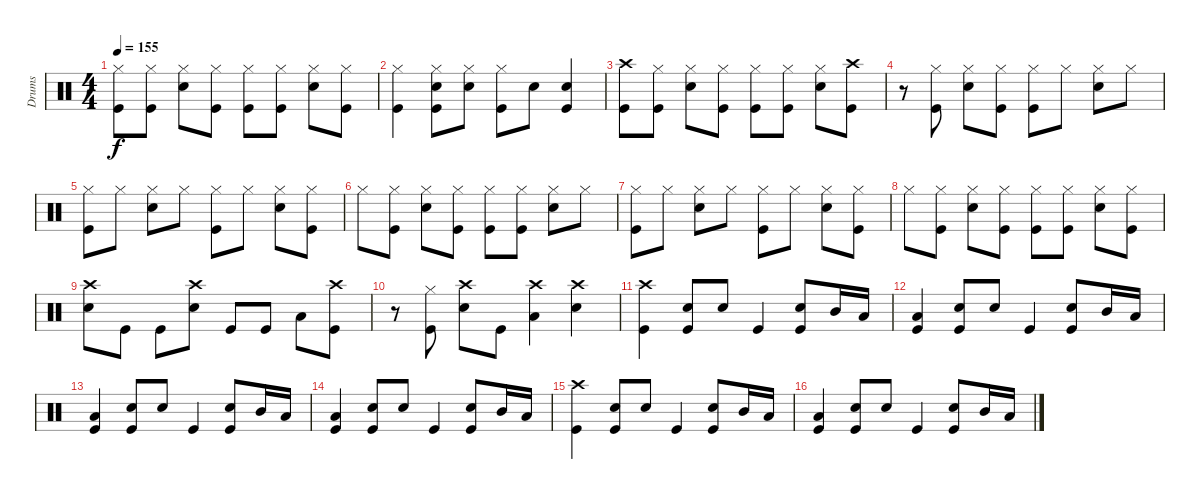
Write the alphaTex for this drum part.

\track ("Drums" "Drums") {instrument percussion}
\staff {score}
\articulation defaults
\ts (4 4)
\tempo 155
\clef neutral
\ks c
("Hi-Hat (closed)" "Kick (hit)").8{dy f} ("Hi-Hat (closed)" "Kick (hit)").8 ("Hi-Hat (closed)" "Snare (hit) 2").8 ("Hi-Hat (closed)" "Kick (hit)").8 ("Hi-Hat (closed)" "Kick (hit)").8 ("Hi-Hat (closed)" "Kick (hit)").8 ("Hi-Hat (closed)" "Snare (hit) 2").8 ("Hi-Hat (closed)" "Kick (hit)").8 |
("Hi-Hat (closed)" "Kick (hit)").4 ("Hi-Hat (closed)" "Snare (hit) 2" "Kick (hit)").8 ("Hi-Hat (closed)" "Snare (hit) 2").8 ("Hi-Hat (closed)" "Kick (hit)").8 "Snare (hit) 2".8 ("Snare (hit) 2" "Kick (hit)").4 |
("Crash high (hit)" "Kick (hit)").8 ("Hi-Hat (closed)" "Kick (hit)").8 ("Hi-Hat (closed)" "Snare (hit) 2").8 ("Hi-Hat (closed)" "Kick (hit)").8 ("Hi-Hat (closed)" "Kick (hit)").8 ("Hi-Hat (closed)" "Kick (hit)").8 ("Hi-Hat (closed)" "Snare (hit) 2").8 ("Crash high (hit)" "Kick (hit)").8 |
r.8 ("Hi-Hat (closed)" "Kick (hit)").8 ("Hi-Hat (closed)" "Snare (hit) 2").8 ("Hi-Hat (closed)" "Kick (hit)").8 ("Hi-Hat (closed)" "Kick (hit)").8 "Hi-Hat (closed)".8 ("Hi-Hat (closed)" "Snare (hit) 2").8 "Hi-Hat (closed)".8 |
("Hi-Hat (closed)" "Kick (hit)").8 "Hi-Hat (closed)".8 ("Hi-Hat (closed)" "Snare (hit) 2").8 "Hi-Hat (closed)".8 ("Hi-Hat (closed)" "Kick (hit)").8 "Hi-Hat (closed)".8 ("Hi-Hat (closed)" "Snare (hit) 2").8 ("Hi-Hat (closed)" "Kick (hit)").8 |
"Hi-Hat (closed)".8 ("Hi-Hat (closed)" "Kick (hit)").8 ("Hi-Hat (closed)" "Snare (hit) 2").8 ("Hi-Hat (closed)" "Kick (hit)").8 ("Hi-Hat (closed)" "Kick (hit)").8 ("Hi-Hat (closed)" "Kick (hit)").8 ("Hi-Hat (closed)" "Snare (hit) 2").8 "Hi-Hat (closed)".8 |
("Hi-Hat (closed)" "Kick (hit)").8 "Hi-Hat (closed)".8 ("Hi-Hat (closed)" "Snare (hit) 2").8 "Hi-Hat (closed)".8 ("Hi-Hat (closed)" "Kick (hit)").8 "Hi-Hat (closed)".8 ("Hi-Hat (closed)" "Snare (hit) 2").8 ("Hi-Hat (closed)" "Kick (hit)").8 |
"Hi-Hat (closed)".8 ("Hi-Hat (closed)" "Kick (hit)").8 ("Hi-Hat (closed)" "Snare (hit) 2").8 ("Hi-Hat (closed)" "Kick (hit)").8 ("Hi-Hat (closed)" "Kick (hit)").8 ("Hi-Hat (closed)" "Kick (hit)").8 ("Hi-Hat (closed)" "Snare (hit) 2").8 ("Hi-Hat (closed)" "Kick (hit)").8 |
("Crash high (hit)" "Snare (hit) 2").8 "Kick (hit)".8 "Kick (hit)".8 ("Crash high (hit)" "Snare (hit) 2").8 "Kick (hit)".8 "Kick (hit)".8 "Low Floor Tom (hit)".8 ("Crash high (hit)" "Kick (hit)").8 |
r.8 ("Hi-Hat (closed)" "Kick (hit)").8 ("Crash high (hit)" "Snare (hit) 2").8 "Kick (hit)".8 ("Crash high (hit)" "Low Floor Tom (hit)").4 ("Crash high (hit)" "Snare (hit) 2").4 |
("Crash high (hit)" "Kick (hit)").4 ("Snare (hit) 2" "Kick (hit)").8 "Snare (hit) 2".8 "Kick (hit)".4 ("Snare (hit) 2" "Kick (hit)").8 "Mid Tom (hit)".16 "Low Tom (hit)".16 |
("Low Floor Tom (hit)" "Kick (hit)").4 ("Snare (hit) 2" "Kick (hit)").8 "Snare (hit) 2".8 "Kick (hit)".4 ("Snare (hit) 2" "Kick (hit)").8 "Mid Tom (hit)".16 "Low Tom (hit)".16 |
("Low Floor Tom (hit)" "Kick (hit)").4 ("Snare (hit) 2" "Kick (hit)").8 "Snare (hit) 2".8 "Kick (hit)".4 ("Snare (hit) 2" "Kick (hit)").8 "Mid Tom (hit)".16 "Low Tom (hit)".16 |
("Low Floor Tom (hit)" "Kick (hit)").4 ("Snare (hit) 2" "Kick (hit)").8 "Snare (hit) 2".8 "Kick (hit)".4 ("Snare (hit) 2" "Kick (hit)").8 "Mid Tom (hit)".16 "Low Tom (hit)".16 |
("Crash high (hit)" "Kick (hit)").4 ("Snare (hit) 2" "Kick (hit)").8 "Snare (hit) 2".8 "Kick (hit)".4 ("Snare (hit) 2" "Kick (hit)").8 "Mid Tom (hit)".16 "Low Tom (hit)".16 |
("Low Floor Tom (hit)" "Kick (hit)").4 ("Snare (hit) 2" "Kick (hit)").8 "Snare (hit) 2".8 "Kick (hit)".4 ("Snare (hit) 2" "Kick (hit)").8 "Mid Tom (hit)".16 "Low Tom (hit)".16
